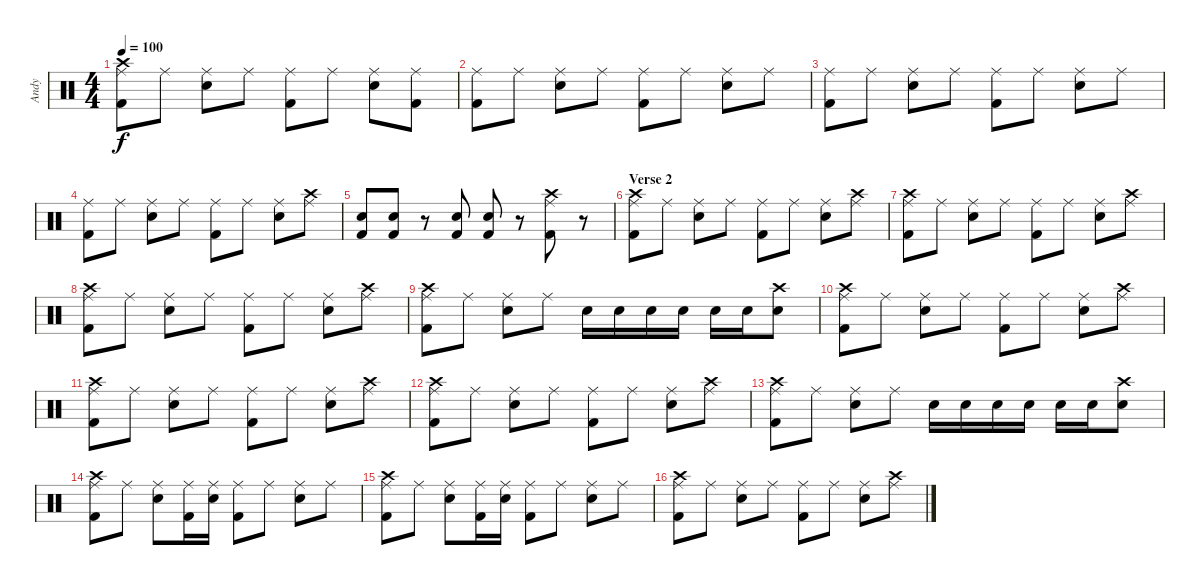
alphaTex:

\track ("Andy" "Andy") {instrument percussion}
\staff {score}
\articulation defaults
\ts (4 4)
\tempo 100
\clef neutral
\ks c
("Crash high (hit)" "Ride (middle)" "Kick (hit) 2").8{dy f} "Ride (middle)".8 ("Ride (middle)" "Snare (hit) 2").8 "Ride (middle)".8 ("Ride (middle)" "Kick (hit) 2").8 "Ride (middle)".8 ("Ride (middle)" "Snare (hit) 2").8 ("Ride (middle)" "Kick (hit) 2").8 |
("Ride (middle)" "Kick (hit) 2").8 "Ride (middle)".8 ("Ride (middle)" "Snare (hit) 2").8 "Ride (middle)".8 ("Ride (middle)" "Kick (hit) 2").8 "Ride (middle)".8 ("Ride (middle)" "Snare (hit) 2").8 "Ride (middle)".8 |
("Ride (middle)" "Kick (hit) 2").8 "Ride (middle)".8 ("Ride (middle)" "Snare (hit) 2").8 "Ride (middle)".8 ("Ride (middle)" "Kick (hit) 2").8 "Ride (middle)".8 ("Ride (middle)" "Snare (hit) 2").8 "Ride (middle)".8 |
("Ride (middle)" "Kick (hit) 2").8 "Ride (middle)".8 ("Ride (middle)" "Snare (hit) 2").8 "Ride (middle)".8 ("Ride (middle)" "Kick (hit) 2").8 "Ride (middle)".8 ("Ride (middle)" "Snare (hit) 2").8 ("Crash high (hit)" "Ride (middle)").8 |
("Snare (hit) 2" "Kick (hit) 2").8 ("Snare (hit) 2" "Kick (hit) 2").8 r.8 ("Snare (hit) 2" "Kick (hit) 2").8 ("Snare (hit) 2" "Kick (hit) 2").8 r.8 ("Crash high (hit)" "Ride (middle)" "Kick (hit) 2").8 r.8 |
\section ("" "Verse 2")
("Crash high (hit)" "Ride (middle)" "Kick (hit) 2").8 "Ride (middle)".8 ("Ride (middle)" "Snare (hit) 2").8 "Ride (middle)".8 ("Ride (middle)" "Kick (hit) 2").8 "Ride (middle)".8 ("Ride (middle)" "Snare (hit) 2").8 ("Crash high (hit)" "Ride (middle)").8 |
("Crash high (hit)" "Ride (middle)" "Kick (hit) 2").8 "Ride (middle)".8 ("Ride (middle)" "Snare (hit) 2").8 "Ride (middle)".8 ("Ride (middle)" "Kick (hit) 2").8 "Ride (middle)".8 ("Ride (middle)" "Snare (hit) 2").8 ("Crash high (hit)" "Ride (middle)").8 |
("Crash high (hit)" "Ride (middle)" "Kick (hit) 2").8 "Ride (middle)".8 ("Ride (middle)" "Snare (hit) 2").8 "Ride (middle)".8 ("Ride (middle)" "Kick (hit) 2").8 "Ride (middle)".8 ("Ride (middle)" "Snare (hit) 2").8 ("Crash high (hit)" "Ride (middle)").8 |
("Crash high (hit)" "Ride (middle)" "Kick (hit) 2").8 "Ride (middle)".8 ("Ride (middle)" "Snare (hit) 2").8 "Ride (middle)".8 "Snare (hit) 2".16 "Snare (hit) 2".16 "Snare (hit) 2".16 "Snare (hit) 2".16 "Snare (hit) 2".16 "Snare (hit) 2".16 ("Crash high (hit)" "Snare (hit) 2").8 |
("Crash high (hit)" "Ride (middle)" "Kick (hit) 2").8 "Ride (middle)".8 ("Ride (middle)" "Snare (hit) 2").8 "Ride (middle)".8 ("Ride (middle)" "Kick (hit) 2").8 "Ride (middle)".8 ("Ride (middle)" "Snare (hit) 2").8 ("Crash high (hit)" "Ride (middle)").8 |
("Crash high (hit)" "Ride (middle)" "Kick (hit) 2").8 "Ride (middle)".8 ("Ride (middle)" "Snare (hit) 2").8 "Ride (middle)".8 ("Ride (middle)" "Kick (hit) 2").8 "Ride (middle)".8 ("Ride (middle)" "Snare (hit) 2").8 ("Crash high (hit)" "Ride (middle)").8 |
("Crash high (hit)" "Ride (middle)" "Kick (hit) 2").8 "Ride (middle)".8 ("Ride (middle)" "Snare (hit) 2").8 "Ride (middle)".8 ("Ride (middle)" "Kick (hit) 2").8 "Ride (middle)".8 ("Ride (middle)" "Snare (hit) 2").8 ("Crash high (hit)" "Ride (middle)").8 |
("Crash high (hit)" "Ride (middle)" "Kick (hit) 2").8 "Ride (middle)".8 ("Ride (middle)" "Snare (hit) 2").8 "Ride (middle)".8 "Snare (hit) 2".16 "Snare (hit) 2".16 "Snare (hit) 2".16 "Snare (hit) 2".16 "Snare (hit) 2".16 "Snare (hit) 2".16 ("Crash high (hit)" "Snare (hit) 2").8 |
("Crash high (hit)" "Ride (middle)" "Kick (hit) 2").8 "Ride (middle)".8 ("Ride (middle)" "Snare (hit) 2").8 ("Ride (middle)" "Kick (hit) 2").16 ("Ride (middle)" "Snare (hit) 2").16 ("Ride (middle)" "Kick (hit) 2").8 "Ride (middle)".8 ("Ride (middle)" "Snare (hit) 2").8 "Ride (middle)".8 |
("Crash high (hit)" "Ride (middle)" "Kick (hit) 2").8 "Ride (middle)".8 ("Ride (middle)" "Snare (hit) 2").8 ("Ride (middle)" "Kick (hit) 2").16 ("Ride (middle)" "Snare (hit) 2").16 ("Ride (middle)" "Kick (hit) 2").8 "Ride (middle)".8 ("Ride (middle)" "Snare (hit) 2").8 "Ride (middle)".8 |
("Crash high (hit)" "Ride (middle)" "Kick (hit) 2").8 "Ride (middle)".8 ("Ride (middle)" "Snare (hit) 2").8 "Ride (middle)".8 ("Ride (middle)" "Kick (hit) 2").8 "Ride (middle)".8 ("Ride (middle)" "Snare (hit) 2").8 ("Crash high (hit)" "Ride (middle)").8
